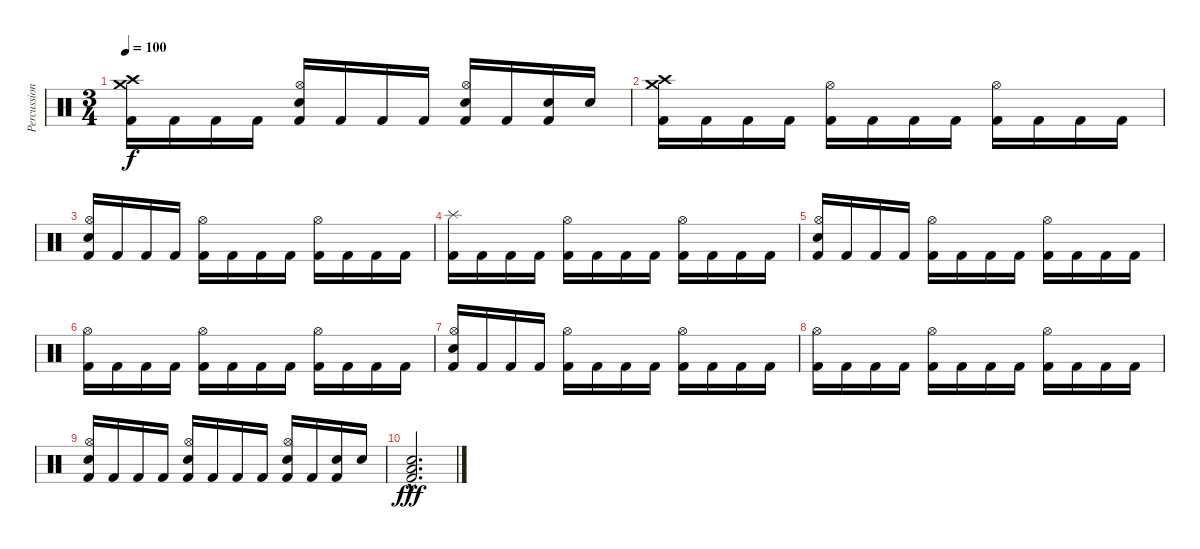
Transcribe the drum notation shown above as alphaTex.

\track ("Percussion" "Percussion") {instrument percussion}
\staff {score}
\articulation defaults
\ts (3 4)
\tempo 100
\clef neutral
\ks c
("Crash medium (hit)" "Crash high (hit)" "Kick (hit) 2").16{dy f} "Kick (hit) 2".16 "Kick (hit) 2".16 "Kick (hit) 2".16 ("Hi-Hat (open)" "Electric Snare (hit)" "Kick (hit) 2").16 "Kick (hit) 2".16 "Kick (hit) 2".16 "Kick (hit) 2".16 ("Hi-Hat (open)" "Electric Snare (hit)" "Kick (hit) 2").16 "Kick (hit) 2".16 ("Electric Snare (hit)" "Kick (hit) 2").16 "Electric Snare (hit)".16 |
("Crash high (hit)" "Crash medium (hit)" "Kick (hit) 2").16 "Kick (hit) 2".16 "Kick (hit) 2".16 "Kick (hit) 2".16 ("Hi-Hat (open)" "Kick (hit) 2").16 "Kick (hit) 2".16 "Kick (hit) 2".16 "Kick (hit) 2".16 ("Hi-Hat (open)" "Kick (hit) 2").16 "Kick (hit) 2".16 "Kick (hit) 2".16 "Kick (hit) 2".16 |
("Hi-Hat (open)" "Electric Snare (hit)" "Kick (hit) 2").16 "Kick (hit) 2".16 "Kick (hit) 2".16 "Kick (hit) 2".16 ("Hi-Hat (open)" "Kick (hit) 2").16 "Kick (hit) 2".16 "Kick (hit) 2".16 "Kick (hit) 2".16 ("Hi-Hat (open)" "Kick (hit) 2").16 "Kick (hit) 2".16 "Kick (hit) 2".16 "Kick (hit) 2".16 |
("Splash (hit)" "Kick (hit) 2").16 "Kick (hit) 2".16 "Kick (hit) 2".16 "Kick (hit) 2".16 ("Hi-Hat (open)" "Kick (hit) 2").16 "Kick (hit) 2".16 "Kick (hit) 2".16 "Kick (hit) 2".16 ("Hi-Hat (open)" "Kick (hit) 2").16 "Kick (hit) 2".16 "Kick (hit) 2".16 "Kick (hit) 2".16 |
("Hi-Hat (open)" "Electric Snare (hit)" "Kick (hit) 2").16 "Kick (hit) 2".16 "Kick (hit) 2".16 "Kick (hit) 2".16 ("Hi-Hat (open)" "Kick (hit) 2").16 "Kick (hit) 2".16 "Kick (hit) 2".16 "Kick (hit) 2".16 ("Hi-Hat (open)" "Kick (hit) 2").16 "Kick (hit) 2".16 "Kick (hit) 2".16 "Kick (hit) 2".16 |
("Hi-Hat (open)" "Kick (hit) 2").16 "Kick (hit) 2".16 "Kick (hit) 2".16 "Kick (hit) 2".16 ("Hi-Hat (open)" "Kick (hit) 2").16 "Kick (hit) 2".16 "Kick (hit) 2".16 "Kick (hit) 2".16 ("Hi-Hat (open)" "Kick (hit) 2").16 "Kick (hit) 2".16 "Kick (hit) 2".16 "Kick (hit) 2".16 |
("Hi-Hat (open)" "Electric Snare (hit)" "Kick (hit) 2").16 "Kick (hit) 2".16 "Kick (hit) 2".16 "Kick (hit) 2".16 ("Hi-Hat (open)" "Kick (hit) 2").16 "Kick (hit) 2".16 "Kick (hit) 2".16 "Kick (hit) 2".16 ("Hi-Hat (open)" "Kick (hit) 2").16 "Kick (hit) 2".16 "Kick (hit) 2".16 "Kick (hit) 2".16 |
("Hi-Hat (open)" "Kick (hit) 2").16 "Kick (hit) 2".16 "Kick (hit) 2".16 "Kick (hit) 2".16 ("Hi-Hat (open)" "Kick (hit) 2").16 "Kick (hit) 2".16 "Kick (hit) 2".16 "Kick (hit) 2".16 ("Hi-Hat (open)" "Kick (hit) 2").16 "Kick (hit) 2".16 "Kick (hit) 2".16 "Kick (hit) 2".16 |
("Hi-Hat (open)" "Electric Snare (hit)" "Kick (hit) 2").16 "Kick (hit) 2".16 "Kick (hit) 2".16 "Kick (hit) 2".16 ("Hi-Hat (open)" "Electric Snare (hit)" "Kick (hit) 2").16 "Kick (hit) 2".16 "Kick (hit) 2".16 "Kick (hit) 2".16 ("Hi-Hat (open)" "Electric Snare (hit)" "Kick (hit) 2").16 "Kick (hit) 2".16 ("Electric Snare (hit)" "Kick (hit) 2").16 "Electric Snare (hit)".16 |
("Low Tom (hit)"{hac} "Electric Snare (hit)"{hac} "Kick (hit) 2"{hac}).2{d dy fff}
